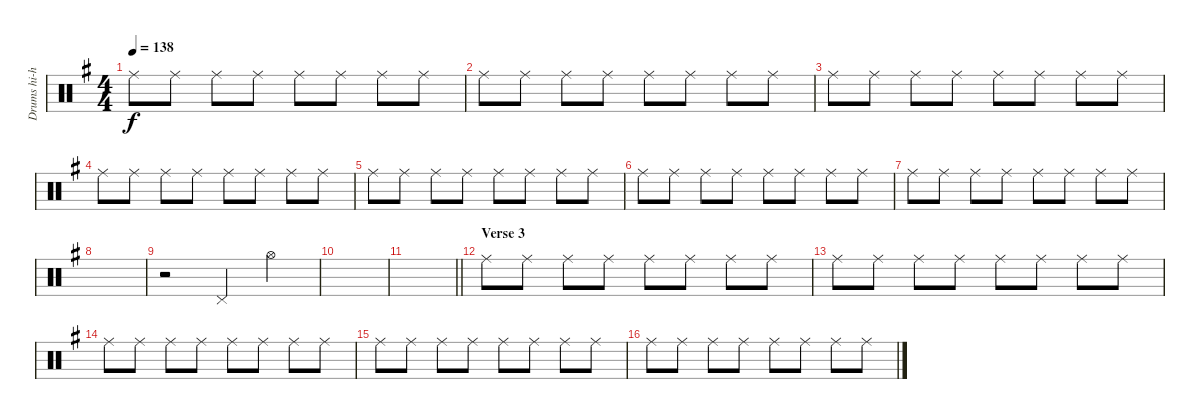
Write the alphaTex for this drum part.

\track ("Drums hi-hat" "Drums hi-h") {instrument percussion}
\staff {score}
\articulation defaults
\ts (4 4)
\tempo 138
\clef neutral
\ks g "Ride (middle)".8{dy f} "Ride (middle)".8 "Ride (middle)".8 "Ride (middle)".8 "Ride (middle)".8 "Ride (middle)".8 "Ride (middle)".8 "Ride (middle)".8
|
"Ride (middle)".8 "Ride (middle)".8 "Ride (middle)".8 "Ride (middle)".8 "Ride (middle)".8 "Ride (middle)".8 "Ride (middle)".8 "Ride (middle)".8 |
"Ride (middle)".8 "Ride (middle)".8 "Ride (middle)".8 "Ride (middle)".8 "Ride (middle)".8 "Ride (middle)".8 "Ride (middle)".8 "Ride (middle)".8 |
"Ride (middle)".8 "Ride (middle)".8 "Ride (middle)".8 "Ride (middle)".8 "Ride (middle)".8 "Ride (middle)".8 "Ride (middle)".8 "Ride (middle)".8 |
"Ride (middle)".8 "Ride (middle)".8 "Ride (middle)".8 "Ride (middle)".8 "Ride (middle)".8 "Ride (middle)".8 "Ride (middle)".8 "Ride (middle)".8 |
"Ride (middle)".8 "Ride (middle)".8 "Ride (middle)".8 "Ride (middle)".8 "Ride (middle)".8 "Ride (middle)".8 "Ride (middle)".8 "Ride (middle)".8 |
"Ride (middle)".8 "Ride (middle)".8 "Ride (middle)".8 "Ride (middle)".8 "Ride (middle)".8 "Ride (middle)".8 "Ride (middle)".8 "Ride (middle)".8 |
|
r.2 "Pedal Hi-Hat (hit)".4 "Hi-Hat (open)".4 |
|
\barLineRight lightlight
|
\section ("" "Verse 3")
"Ride (middle)".8 "Ride (middle)".8 "Ride (middle)".8 "Ride (middle)".8 "Ride (middle)".8 "Ride (middle)".8 "Ride (middle)".8 "Ride (middle)".8 |
"Ride (middle)".8 "Ride (middle)".8 "Ride (middle)".8 "Ride (middle)".8 "Ride (middle)".8 "Ride (middle)".8 "Ride (middle)".8 "Ride (middle)".8 |
"Ride (middle)".8 "Ride (middle)".8 "Ride (middle)".8 "Ride (middle)".8 "Ride (middle)".8 "Ride (middle)".8 "Ride (middle)".8 "Ride (middle)".8 |
"Ride (middle)".8 "Ride (middle)".8 "Ride (middle)".8 "Ride (middle)".8 "Ride (middle)".8 "Ride (middle)".8 "Ride (middle)".8 "Ride (middle)".8 |
"Ride (middle)".8 "Ride (middle)".8 "Ride (middle)".8 "Ride (middle)".8 "Ride (middle)".8 "Ride (middle)".8 "Ride (middle)".8 "Ride (middle)".8
